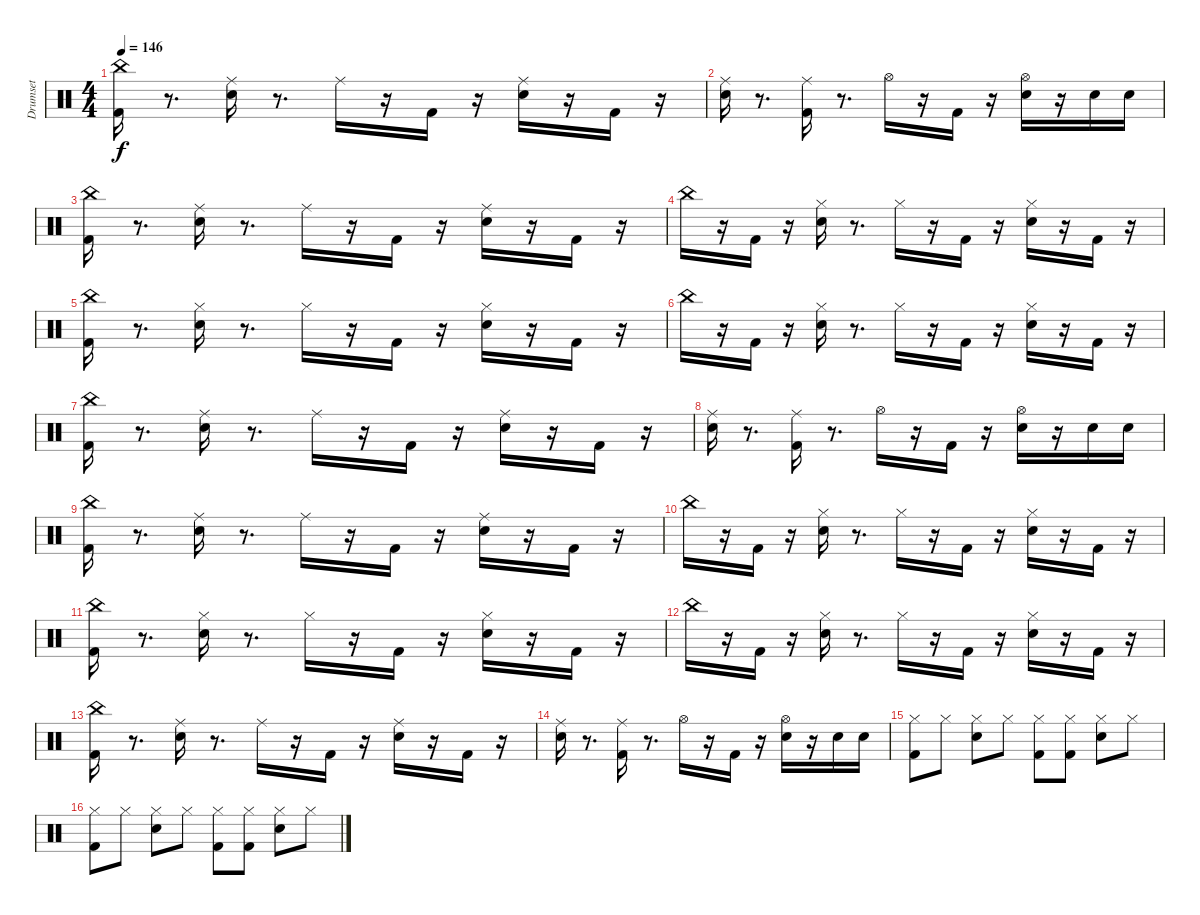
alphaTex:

\track ("Drumset" "Drumset") {instrument percussion}
\staff {score}
\articulation defaults
\ts (4 4)
\tempo 146
\clef neutral
\ks c
("Kick (hit) 2" "China (hit)").16{dy f} r.8{d} ("Electric Snare (hit)" "Ride (middle)").16 r.8{d} "Ride (middle)".16 r.16 "Kick (hit) 2".16 r.16 ("Electric Snare (hit)" "Ride (middle)").16 r.16 "Kick (hit) 2".16 r.16 |
("Electric Snare (hit)" "Ride (middle)").16 r.8{d} ("Kick (hit) 2" "Ride (middle)").16 r.8{d} "Hi-Hat (open)".16 r.16 "Kick (hit) 2".16 r.16 ("Electric Snare (hit)" "Hi-Hat (open)").16 r.16 "Electric Snare (hit)".16 "Electric Snare (hit)".16 |
("Kick (hit) 2" "China (hit)").16 r.8{d} ("Electric Snare (hit)" "Ride (middle)").16 r.8{d} "Ride (middle)".16 r.16 "Kick (hit) 2".16 r.16 ("Electric Snare (hit)" "Ride (middle)").16 r.16 "Kick (hit) 2".16 r.16 |
"China (hit)".16 r.16 "Kick (hit) 2".16 r.16 ("Electric Snare (hit)" "Hi-Hat (closed)").16 r.8{d} "Hi-Hat (closed)".16 r.16 "Kick (hit) 2".16 r.16 ("Electric Snare (hit)" "Hi-Hat (closed)").16 r.16 "Kick (hit) 2".16 r.16 |
("Kick (hit) 2" "China (hit)").16 r.8{d} ("Electric Snare (hit)" "Hi-Hat (closed)").16 r.8{d} "Hi-Hat (closed)".16 r.16 "Kick (hit) 2".16 r.16 ("Electric Snare (hit)" "Hi-Hat (closed)").16 r.16 "Kick (hit) 2".16 r.16 |
"China (hit)".16 r.16 "Kick (hit) 2".16 r.16 ("Electric Snare (hit)" "Hi-Hat (closed)").16 r.8{d} "Hi-Hat (closed)".16 r.16 "Kick (hit) 2".16 r.16 ("Electric Snare (hit)" "Hi-Hat (closed)").16 r.16 "Kick (hit) 2".16 r.16 |
("Kick (hit) 2" "China (hit)").16 r.8{d} ("Electric Snare (hit)" "Ride (middle)").16 r.8{d} "Ride (middle)".16 r.16 "Kick (hit) 2".16 r.16 ("Electric Snare (hit)" "Ride (middle)").16 r.16 "Kick (hit) 2".16 r.16 |
("Electric Snare (hit)" "Ride (middle)").16 r.8{d} ("Kick (hit) 2" "Ride (middle)").16 r.8{d} "Hi-Hat (open)".16 r.16 "Kick (hit) 2".16 r.16 ("Electric Snare (hit)" "Hi-Hat (open)").16 r.16 "Electric Snare (hit)".16 "Electric Snare (hit)".16 |
("Kick (hit) 2" "China (hit)").16 r.8{d} ("Electric Snare (hit)" "Ride (middle)").16 r.8{d} "Ride (middle)".16 r.16 "Kick (hit) 2".16 r.16 ("Electric Snare (hit)" "Ride (middle)").16 r.16 "Kick (hit) 2".16 r.16 |
"China (hit)".16 r.16 "Kick (hit) 2".16 r.16 ("Electric Snare (hit)" "Hi-Hat (closed)").16 r.8{d} "Hi-Hat (closed)".16 r.16 "Kick (hit) 2".16 r.16 ("Electric Snare (hit)" "Hi-Hat (closed)").16 r.16 "Kick (hit) 2".16 r.16 |
("Kick (hit) 2" "China (hit)").16 r.8{d} ("Electric Snare (hit)" "Hi-Hat (closed)").16 r.8{d} "Hi-Hat (closed)".16 r.16 "Kick (hit) 2".16 r.16 ("Electric Snare (hit)" "Hi-Hat (closed)").16 r.16 "Kick (hit) 2".16 r.16 |
"China (hit)".16 r.16 "Kick (hit) 2".16 r.16 ("Electric Snare (hit)" "Hi-Hat (closed)").16 r.8{d} "Hi-Hat (closed)".16 r.16 "Kick (hit) 2".16 r.16 ("Electric Snare (hit)" "Hi-Hat (closed)").16 r.16 "Kick (hit) 2".16 r.16 |
("Kick (hit) 2" "China (hit)").16 r.8{d} ("Electric Snare (hit)" "Ride (middle)").16 r.8{d} "Ride (middle)".16 r.16 "Kick (hit) 2".16 r.16 ("Electric Snare (hit)" "Ride (middle)").16 r.16 "Kick (hit) 2".16 r.16 |
("Electric Snare (hit)" "Ride (middle)").16 r.8{d} ("Kick (hit) 2" "Ride (middle)").16 r.8{d} "Hi-Hat (open)".16 r.16 "Kick (hit) 2".16 r.16 ("Electric Snare (hit)" "Hi-Hat (open)").16 r.16 "Electric Snare (hit)".16 "Electric Snare (hit)".16 |
("Kick (hit) 2" "Hi-Hat (closed)").8 "Hi-Hat (closed)".8 ("Snare (hit) 2" "Hi-Hat (closed)").8 "Hi-Hat (closed)".8 ("Kick (hit) 2" "Hi-Hat (closed)").8 ("Kick (hit) 2" "Hi-Hat (closed)").8 ("Snare (hit) 2" "Hi-Hat (closed)").8 "Hi-Hat (closed)".8 |
("Kick (hit) 2" "Hi-Hat (closed)").8 "Hi-Hat (closed)".8 ("Snare (hit) 2" "Hi-Hat (closed)").8 "Hi-Hat (closed)".8 ("Kick (hit) 2" "Hi-Hat (closed)").8 ("Kick (hit) 2" "Hi-Hat (closed)").8 ("Snare (hit) 2" "Hi-Hat (closed)").8 "Hi-Hat (closed)".8
